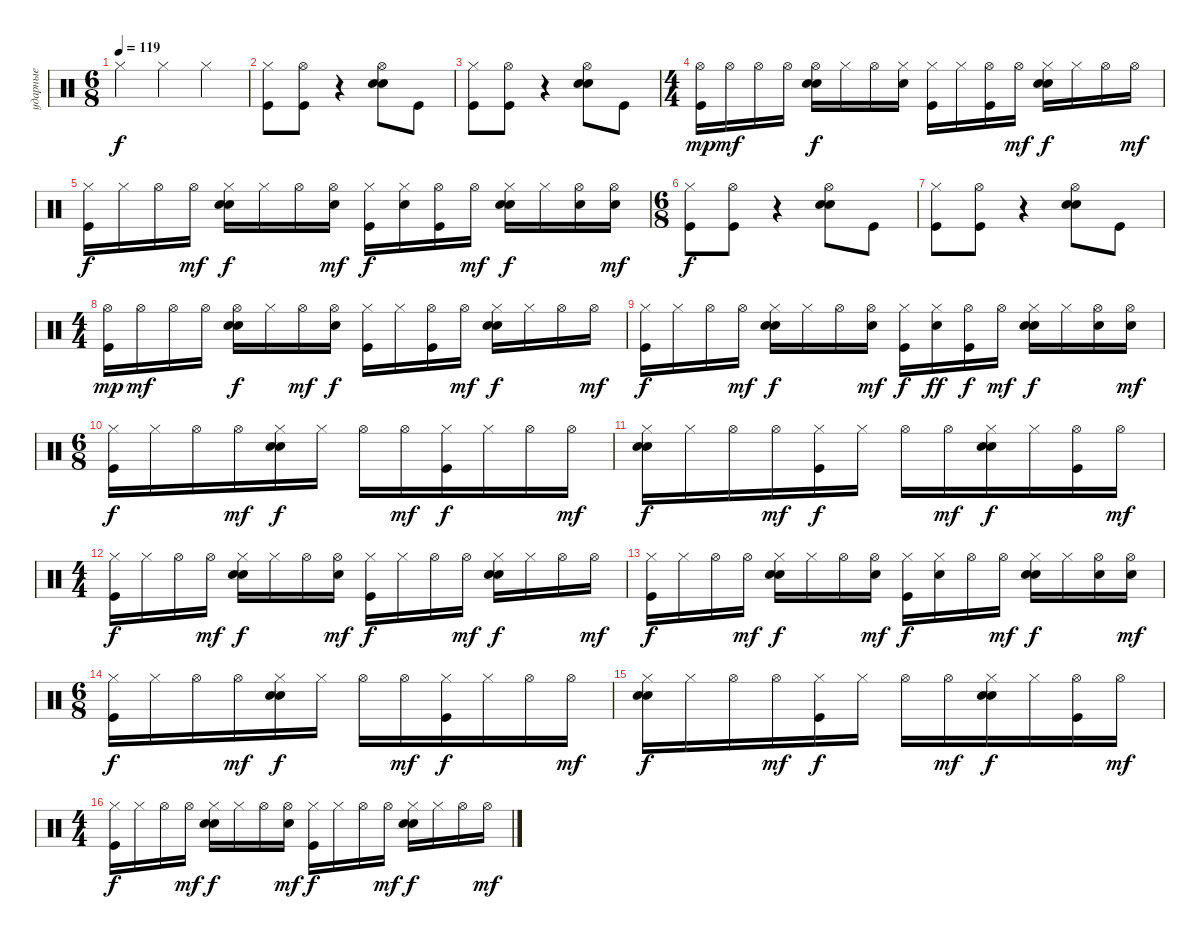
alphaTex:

\track ("ударные" "ударные") {instrument percussion}
\staff {score}
\articulation defaults
\ts (6 8)
\tempo 119
\clef neutral
\ks c "Hi-Hat (closed)".4{dy f} "Hi-Hat (closed)".4 "Hi-Hat (closed)".4
|
("Kick (hit)" "Hi-Hat (closed)").8 ("Hi-Hat (open)" "Kick (hit)").8 r.4 ("Hi-Hat (open)" "Electric Snare (hit)" "Hand Clap (hit)").8 "Kick (hit)".8 |
("Hi-Hat (closed)" "Kick (hit)").8 ("Hi-Hat (open)" "Kick (hit)").8 r.4 ("Electric Snare (hit)" "Hi-Hat (open)" "Hand Clap (hit)").8 "Kick (hit)".8 |
\ts (4 4)
("Kick (hit)" "Hi-Hat (open)").16{dy mp} "Hi-Hat (open)".16{dy mf} "Hi-Hat (open)".16 "Hi-Hat (open)".16 ("Electric Snare (hit)" "Hi-Hat (open)" "Hand Clap (hit)").16{dy f} "Hi-Hat (closed)".16 "Hi-Hat (open)".16 ("Electric Snare (hit)" "Hi-Hat (closed)").16 ("Hi-Hat (closed)" "Kick (hit)").16 "Hi-Hat (closed)".16 ("Hi-Hat (open)" "Kick (hit)").16 "Hi-Hat (open)".16{dy mf} ("Electric Snare (hit)" "Hi-Hat (closed)" "Hand Clap (hit)").16{dy f} "Hi-Hat (closed)".16 "Hi-Hat (open)".16 "Hi-Hat (open)".16{dy mf} |
("Hi-Hat (closed)" "Kick (hit)").16{dy f} "Hi-Hat (closed)".16 "Hi-Hat (open)".16 "Hi-Hat (open)".16{dy mf} ("Hi-Hat (closed)" "Electric Snare (hit)" "Hand Clap (hit)").16{dy f} "Hi-Hat (closed)".16 "Hi-Hat (open)".16 ("Electric Snare (hit)" "Hi-Hat (open)").16{dy mf} ("Hi-Hat (closed)" "Kick (hit)").16{dy f} ("Electric Snare (hit)" "Hi-Hat (closed)").16 ("Hi-Hat (open)" "Kick (hit)").16 "Hi-Hat (open)".16{dy mf} ("Electric Snare (hit)" "Hi-Hat (closed)" "Hand Clap (hit)").16{dy f} "Hi-Hat (closed)".16 ("Hi-Hat (open)" "Electric Snare (hit)").16 ("Hi-Hat (open)" "Electric Snare (hit)").16{dy mf} |
\ts (6 8)
("Hi-Hat (closed)" "Kick (hit)").8{dy f} ("Hi-Hat (open)" "Kick (hit)").8 r.4 ("Hi-Hat (open)" "Electric Snare (hit)" "Hand Clap (hit)").8 "Kick (hit)".8 |
("Hi-Hat (closed)" "Kick (hit)").8 ("Hi-Hat (open)" "Kick (hit)").8 r.4 ("Electric Snare (hit)" "Hi-Hat (open)" "Hand Clap (hit)").8 "Kick (hit)".8 |
\ts (4 4)
("Kick (hit)" "Hi-Hat (open)").16{dy mp} "Hi-Hat (open)".16{dy mf} "Hi-Hat (open)".16 "Hi-Hat (open)".16 ("Electric Snare (hit)" "Hi-Hat (open)" "Hand Clap (hit)").16{dy f} "Hi-Hat (closed)".16 "Hi-Hat (open)".16{dy mf} ("Electric Snare (hit)" "Hi-Hat (open)").16{dy f} ("Hi-Hat (closed)" "Kick (hit)").16 "Hi-Hat (closed)".16 ("Hi-Hat (open)" "Kick (hit)").16 "Hi-Hat (open)".16{dy mf} ("Electric Snare (hit)" "Hi-Hat (closed)" "Hand Clap (hit)").16{dy f} "Hi-Hat (closed)".16 "Hi-Hat (open)".16 "Hi-Hat (open)".16{dy mf} |
("Hi-Hat (closed)" "Kick (hit)").16{dy f} "Hi-Hat (closed)".16 "Hi-Hat (open)".16 "Hi-Hat (open)".16{dy mf} ("Hi-Hat (closed)" "Electric Snare (hit)" "Hand Clap (hit)").16{dy f} "Hi-Hat (closed)".16 "Hi-Hat (open)".16 ("Electric Snare (hit)" "Hi-Hat (open)").16{dy mf} ("Hi-Hat (closed)" "Kick (hit)").16{dy f} ("Electric Snare (hit)" "Hi-Hat (closed)").16{dy ff} ("Hi-Hat (open)" "Kick (hit)").16{dy f} "Hi-Hat (open)".16{dy mf} ("Electric Snare (hit)" "Hi-Hat (closed)" "Hand Clap (hit)").16{dy f} "Hi-Hat (closed)".16 ("Hi-Hat (open)" "Electric Snare (hit)").16 ("Hi-Hat (open)" "Electric Snare (hit)").16{dy mf} |
\ts (6 8)
("Hi-Hat (closed)" "Kick (hit)").16{dy f} "Hi-Hat (closed)".16 "Hi-Hat (open)".16 "Hi-Hat (open)".16{dy mf} ("Electric Snare (hit)" "Hi-Hat (closed)" "Hand Clap (hit)").16{dy f} "Hi-Hat (closed)".16 "Hi-Hat (open)".16 "Hi-Hat (open)".16{dy mf} ("Kick (hit)" "Hi-Hat (closed)").16{dy f} "Hi-Hat (closed)".16 "Hi-Hat (open)".16 "Hi-Hat (open)".16{dy mf} |
("Electric Snare (hit)" "Hi-Hat (closed)" "Hand Clap (hit)").16{dy f} "Hi-Hat (closed)".16 "Hi-Hat (open)".16 "Hi-Hat (open)".16{dy mf} ("Kick (hit)" "Hi-Hat (closed)").16{dy f} "Hi-Hat (closed)".16 "Hi-Hat (open)".16 "Hi-Hat (open)".16{dy mf} ("Electric Snare (hit)" "Hi-Hat (closed)" "Hand Clap (hit)").16{dy f} "Hi-Hat (closed)".16 ("Kick (hit)" "Hi-Hat (open)").16 "Hi-Hat (open)".16{dy mf} |
\ts (4 4)
("Kick (hit)" "Hi-Hat (closed)").16{dy f} "Hi-Hat (closed)".16 "Hi-Hat (open)".16 "Hi-Hat (open)".16{dy mf} ("Electric Snare (hit)" "Hi-Hat (closed)" "Hand Clap (hit)").16{dy f} "Hi-Hat (closed)".16 "Hi-Hat (open)".16 ("Hi-Hat (open)" "Electric Snare (hit)").16{dy mf} ("Hi-Hat (closed)" "Kick (hit)").16{dy f} "Hi-Hat (closed)".16 "Hi-Hat (open)".16 "Hi-Hat (open)".16{dy mf} ("Electric Snare (hit)" "Hi-Hat (closed)" "Hand Clap (hit)").16{dy f} "Hi-Hat (closed)".16 "Hi-Hat (open)".16 "Hi-Hat (open)".16{dy mf} |
("Kick (hit)" "Hi-Hat (closed)").16{dy f} "Hi-Hat (closed)".16 "Hi-Hat (open)".16 "Hi-Hat (open)".16{dy mf} ("Electric Snare (hit)" "Hi-Hat (closed)" "Hand Clap (hit)").16{dy f} "Hi-Hat (closed)".16 "Hi-Hat (open)".16 ("Hi-Hat (open)" "Electric Snare (hit)").16{dy mf} ("Hi-Hat (closed)" "Kick (hit)").16{dy f} ("Electric Snare (hit)" "Hi-Hat (closed)").16 "Hi-Hat (open)".16 "Hi-Hat (open)".16{dy mf} ("Electric Snare (hit)" "Hi-Hat (closed)" "Hand Clap (hit)").16{dy f} "Hi-Hat (closed)".16 ("Electric Snare (hit)" "Hi-Hat (open)").16 ("Electric Snare (hit)" "Hi-Hat (open)").16{dy mf} |
\ts (6 8)
("Hi-Hat (closed)" "Kick (hit)").16{dy f} "Hi-Hat (closed)".16 "Hi-Hat (open)".16 "Hi-Hat (open)".16{dy mf} ("Electric Snare (hit)" "Hi-Hat (closed)" "Hand Clap (hit)").16{dy f} "Hi-Hat (closed)".16 "Hi-Hat (open)".16 "Hi-Hat (open)".16{dy mf} ("Kick (hit)" "Hi-Hat (closed)").16{dy f} "Hi-Hat (closed)".16 "Hi-Hat (open)".16 "Hi-Hat (open)".16{dy mf} |
("Electric Snare (hit)" "Hi-Hat (closed)" "Hand Clap (hit)").16{dy f} "Hi-Hat (closed)".16 "Hi-Hat (open)".16 "Hi-Hat (open)".16{dy mf} ("Kick (hit)" "Hi-Hat (closed)").16{dy f} "Hi-Hat (closed)".16 "Hi-Hat (open)".16 "Hi-Hat (open)".16{dy mf} ("Electric Snare (hit)" "Hi-Hat (closed)" "Hand Clap (hit)").16{dy f} "Hi-Hat (closed)".16 ("Kick (hit)" "Hi-Hat (open)").16 "Hi-Hat (open)".16{dy mf} |
\ts (4 4)
("Kick (hit)" "Hi-Hat (closed)").16{dy f} "Hi-Hat (closed)".16 "Hi-Hat (open)".16 "Hi-Hat (open)".16{dy mf} ("Electric Snare (hit)" "Hi-Hat (closed)" "Hand Clap (hit)").16{dy f} "Hi-Hat (closed)".16 "Hi-Hat (open)".16 ("Hi-Hat (open)" "Electric Snare (hit)").16{dy mf} ("Hi-Hat (closed)" "Kick (hit)").16{dy f} "Hi-Hat (closed)".16 "Hi-Hat (open)".16 "Hi-Hat (open)".16{dy mf} ("Electric Snare (hit)" "Hi-Hat (closed)" "Hand Clap (hit)").16{dy f} "Hi-Hat (closed)".16 "Hi-Hat (open)".16 "Hi-Hat (open)".16{dy mf}
